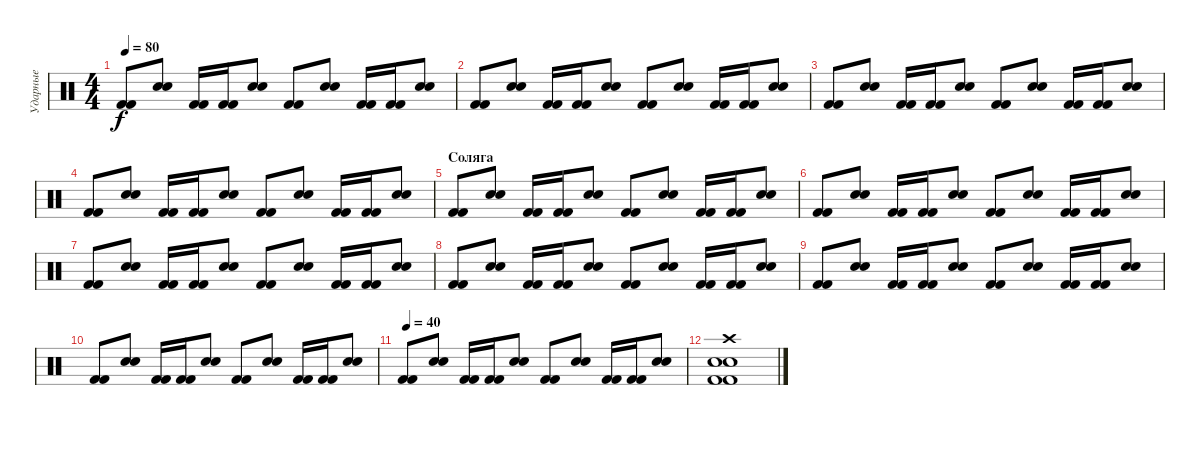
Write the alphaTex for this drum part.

\track ("Ударные" "Ударные") {instrument percussion}
\staff {score}
\articulation defaults
\ts (4 4)
\tempo 80
\clef neutral
\ks c
("Kick (hit) 2" "Kick (hit) 2").8{dy f} ("Snare (hit) 2" "Snare (hit) 2").8 ("Kick (hit) 2" "Kick (hit) 2").16 ("Kick (hit) 2" "Kick (hit) 2").16 ("Snare (hit) 2" "Snare (hit) 2").8 ("Kick (hit) 2" "Kick (hit) 2").8 ("Snare (hit) 2" "Snare (hit) 2").8 ("Kick (hit) 2" "Kick (hit) 2").16 ("Kick (hit) 2" "Kick (hit) 2").16 ("Snare (hit) 2" "Snare (hit) 2").8 |
("Kick (hit) 2" "Kick (hit) 2").8 ("Snare (hit) 2" "Snare (hit) 2").8 ("Kick (hit) 2" "Kick (hit) 2").16 ("Kick (hit) 2" "Kick (hit) 2").16 ("Snare (hit) 2" "Snare (hit) 2").8 ("Kick (hit) 2" "Kick (hit) 2").8 ("Snare (hit) 2" "Snare (hit) 2").8 ("Kick (hit) 2" "Kick (hit) 2").16 ("Kick (hit) 2" "Kick (hit) 2").16 ("Snare (hit) 2" "Snare (hit) 2").8 |
("Kick (hit) 2" "Kick (hit) 2").8 ("Snare (hit) 2" "Snare (hit) 2").8 ("Kick (hit) 2" "Kick (hit) 2").16 ("Kick (hit) 2" "Kick (hit) 2").16 ("Snare (hit) 2" "Snare (hit) 2").8 ("Kick (hit) 2" "Kick (hit) 2").8 ("Snare (hit) 2" "Snare (hit) 2").8 ("Kick (hit) 2" "Kick (hit) 2").16 ("Kick (hit) 2" "Kick (hit) 2").16 ("Snare (hit) 2" "Snare (hit) 2").8 |
("Kick (hit) 2" "Kick (hit) 2").8 ("Snare (hit) 2" "Snare (hit) 2").8 ("Kick (hit) 2" "Kick (hit) 2").16 ("Kick (hit) 2" "Kick (hit) 2").16 ("Snare (hit) 2" "Snare (hit) 2").8 ("Kick (hit) 2" "Kick (hit) 2").8 ("Snare (hit) 2" "Snare (hit) 2").8 ("Kick (hit) 2" "Kick (hit) 2").16 ("Kick (hit) 2" "Kick (hit) 2").16 ("Snare (hit) 2" "Snare (hit) 2").8 |
\section ("" "Соляга")
("Kick (hit) 2" "Kick (hit) 2").8 ("Snare (hit) 2" "Snare (hit) 2").8 ("Kick (hit) 2" "Kick (hit) 2").16 ("Kick (hit) 2" "Kick (hit) 2").16 ("Snare (hit) 2" "Snare (hit) 2").8 ("Kick (hit) 2" "Kick (hit) 2").8 ("Snare (hit) 2" "Snare (hit) 2").8 ("Kick (hit) 2" "Kick (hit) 2").16 ("Kick (hit) 2" "Kick (hit) 2").16 ("Snare (hit) 2" "Snare (hit) 2").8 |
("Kick (hit) 2" "Kick (hit) 2").8 ("Snare (hit) 2" "Snare (hit) 2").8 ("Kick (hit) 2" "Kick (hit) 2").16 ("Kick (hit) 2" "Kick (hit) 2").16 ("Snare (hit) 2" "Snare (hit) 2").8 ("Kick (hit) 2" "Kick (hit) 2").8 ("Snare (hit) 2" "Snare (hit) 2").8 ("Kick (hit) 2" "Kick (hit) 2").16 ("Kick (hit) 2" "Kick (hit) 2").16 ("Snare (hit) 2" "Snare (hit) 2").8 |
("Kick (hit) 2" "Kick (hit) 2").8 ("Snare (hit) 2" "Snare (hit) 2").8 ("Kick (hit) 2" "Kick (hit) 2").16 ("Kick (hit) 2" "Kick (hit) 2").16 ("Snare (hit) 2" "Snare (hit) 2").8 ("Kick (hit) 2" "Kick (hit) 2").8 ("Snare (hit) 2" "Snare (hit) 2").8 ("Kick (hit) 2" "Kick (hit) 2").16 ("Kick (hit) 2" "Kick (hit) 2").16 ("Snare (hit) 2" "Snare (hit) 2").8 |
("Kick (hit) 2" "Kick (hit) 2").8 ("Snare (hit) 2" "Snare (hit) 2").8 ("Kick (hit) 2" "Kick (hit) 2").16 ("Kick (hit) 2" "Kick (hit) 2").16 ("Snare (hit) 2" "Snare (hit) 2").8 ("Kick (hit) 2" "Kick (hit) 2").8 ("Snare (hit) 2" "Snare (hit) 2").8 ("Kick (hit) 2" "Kick (hit) 2").16 ("Kick (hit) 2" "Kick (hit) 2").16 ("Snare (hit) 2" "Snare (hit) 2").8 |
("Kick (hit) 2" "Kick (hit) 2").8 ("Snare (hit) 2" "Snare (hit) 2").8 ("Kick (hit) 2" "Kick (hit) 2").16 ("Kick (hit) 2" "Kick (hit) 2").16 ("Snare (hit) 2" "Snare (hit) 2").8 ("Kick (hit) 2" "Kick (hit) 2").8 ("Snare (hit) 2" "Snare (hit) 2").8 ("Kick (hit) 2" "Kick (hit) 2").16 ("Kick (hit) 2" "Kick (hit) 2").16 ("Snare (hit) 2" "Snare (hit) 2").8 |
("Kick (hit) 2" "Kick (hit) 2").8 ("Snare (hit) 2" "Snare (hit) 2").8 ("Kick (hit) 2" "Kick (hit) 2").16 ("Kick (hit) 2" "Kick (hit) 2").16 ("Snare (hit) 2" "Snare (hit) 2").8 ("Kick (hit) 2" "Kick (hit) 2").8 ("Snare (hit) 2" "Snare (hit) 2").8 ("Kick (hit) 2" "Kick (hit) 2").16 ("Kick (hit) 2" "Kick (hit) 2").16 ("Snare (hit) 2" "Snare (hit) 2").8 |
\tempo 40
("Kick (hit) 2" "Kick (hit) 2").8 ("Snare (hit) 2" "Snare (hit) 2").8 ("Kick (hit) 2" "Kick (hit) 2").16 ("Kick (hit) 2" "Kick (hit) 2").16 ("Snare (hit) 2" "Snare (hit) 2").8 ("Kick (hit) 2" "Kick (hit) 2").8 ("Snare (hit) 2" "Snare (hit) 2").8 ("Kick (hit) 2" "Kick (hit) 2").16 ("Kick (hit) 2" "Kick (hit) 2").16 ("Snare (hit) 2" "Snare (hit) 2").8 |
("Kick (hit) 2" "Kick (hit) 2" "Snare (hit) 2" "Snare (hit) 2" "Crash high (hit)").1
